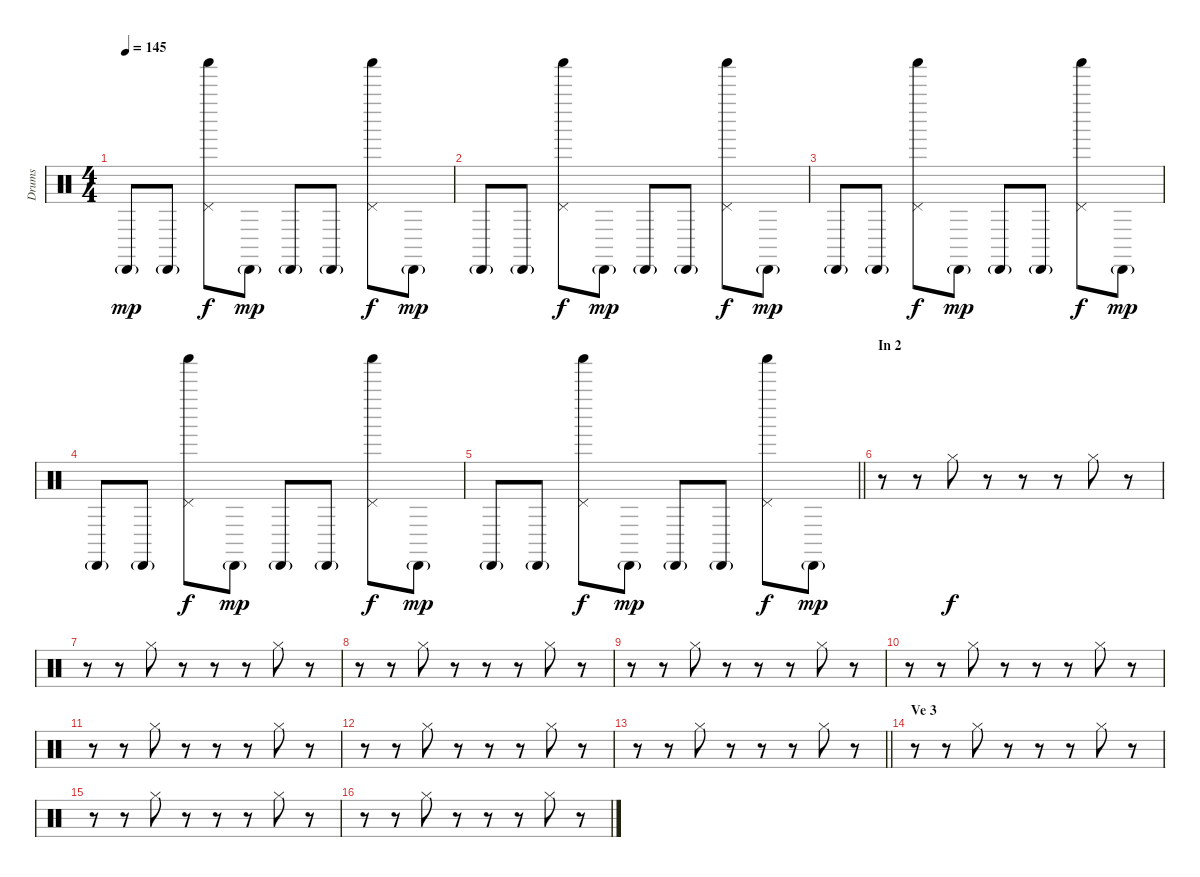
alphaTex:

\track ("Drums" "Drums") {instrument percussion}
\staff {score}
\articulation defaults
\ts (4 4)
\tempo 145
\clef neutral
\ks c "Cabasa (hit)"{g}.8{dy mp} "Cabasa (hit)"{g}.8
("Shaker (hit)" "Pedal Hi-Hat (hit)").8{dy f} "Cabasa (hit)"{g}.8{dy mp} "Cabasa (hit)"{g}.8 "Cabasa (hit)"{g}.8 ("Shaker (hit)" "Pedal Hi-Hat (hit)").8{dy f} "Cabasa (hit)"{g}.8{dy mp} |
"Cabasa (hit)"{g}.8 "Cabasa (hit)"{g}.8 ("Shaker (hit)" "Pedal Hi-Hat (hit)").8{dy f} "Cabasa (hit)"{g}.8{dy mp} "Cabasa (hit)"{g}.8 "Cabasa (hit)"{g}.8 ("Shaker (hit)" "Pedal Hi-Hat (hit)").8{dy f} "Cabasa (hit)"{g}.8{dy mp} |
"Cabasa (hit)"{g}.8 "Cabasa (hit)"{g}.8 ("Shaker (hit)" "Pedal Hi-Hat (hit)").8{dy f} "Cabasa (hit)"{g}.8{dy mp} "Cabasa (hit)"{g}.8 "Cabasa (hit)"{g}.8 ("Shaker (hit)" "Pedal Hi-Hat (hit)").8{dy f} "Cabasa (hit)"{g}.8{dy mp} |
"Cabasa (hit)"{g}.8 "Cabasa (hit)"{g}.8 ("Shaker (hit)" "Pedal Hi-Hat (hit)").8{dy f} "Cabasa (hit)"{g}.8{dy mp} "Cabasa (hit)"{g}.8 "Cabasa (hit)"{g}.8 ("Shaker (hit)" "Pedal Hi-Hat (hit)").8{dy f} "Cabasa (hit)"{g}.8{dy mp} |
\barLineRight lightlight "Cabasa (hit)"{g}.8 "Cabasa (hit)"{g}.8
("Shaker (hit)" "Pedal Hi-Hat (hit)").8{dy f} "Cabasa (hit)"{g}.8{dy mp} "Cabasa (hit)"{g}.8 "Cabasa (hit)"{g}.8 ("Shaker (hit)" "Pedal Hi-Hat (hit)").8{dy f} "Cabasa (hit)"{g}.8{dy mp} |
\section ("" "In 2")
r.8 r.8 "Hi-Hat (closed)".8{dy f} r.8 r.8 r.8 "Hi-Hat (closed)".8 r.8 |
r.8 r.8 "Hi-Hat (closed)".8 r.8 r.8 r.8 "Hi-Hat (closed)".8 r.8 |
r.8 r.8 "Hi-Hat (closed)".8 r.8 r.8 r.8 "Hi-Hat (closed)".8 r.8 |
r.8 r.8 "Hi-Hat (closed)".8 r.8 r.8 r.8 "Hi-Hat (closed)".8 r.8 |
r.8 r.8 "Hi-Hat (closed)".8 r.8 r.8 r.8 "Hi-Hat (closed)".8 r.8 |
r.8 r.8 "Hi-Hat (closed)".8 r.8 r.8 r.8 "Hi-Hat (closed)".8 r.8 |
r.8 r.8 "Hi-Hat (closed)".8 r.8 r.8 r.8 "Hi-Hat (closed)".8 r.8 |
\barLineRight lightlight
r.8 r.8 "Hi-Hat (closed)".8 r.8 r.8 r.8 "Hi-Hat (closed)".8 r.8 |
\section ("" "Ve 3")
r.8 r.8 "Hi-Hat (closed)".8 r.8 r.8 r.8 "Hi-Hat (closed)".8 r.8 |
r.8 r.8 "Hi-Hat (closed)".8 r.8 r.8 r.8 "Hi-Hat (closed)".8 r.8 |
r.8 r.8 "Hi-Hat (closed)".8 r.8 r.8 r.8 "Hi-Hat (closed)".8 r.8
